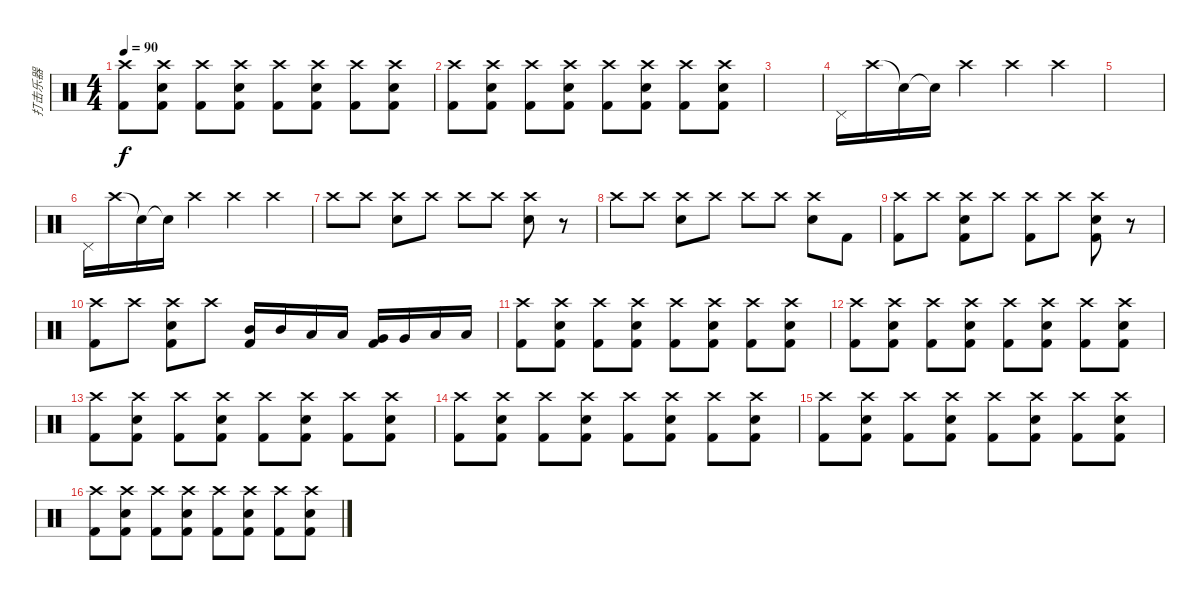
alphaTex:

\track ("打击乐器" "打击乐器") {instrument percussion}
\staff {score}
\articulation defaults
\ts (4 4)
\tempo 90
\clef neutral
\ks c
("Crash high (hit)" "Kick (hit) 2").8{dy f} ("Crash high (hit)" "Electric Snare (hit)" "Kick (hit) 2").8 ("Crash high (hit)" "Kick (hit) 2").8 ("Crash high (hit)" "Electric Snare (hit)" "Kick (hit) 2").8 ("Crash high (hit)" "Kick (hit) 2").8 ("Crash high (hit)" "Electric Snare (hit)" "Kick (hit) 2").8 ("Crash high (hit)" "Kick (hit) 2").8 ("Crash high (hit)" "Electric Snare (hit)" "Kick (hit) 2").8 |
("Crash high (hit)" "Kick (hit) 2").8 ("Crash high (hit)" "Electric Snare (hit)" "Kick (hit) 2").8 ("Crash high (hit)" "Kick (hit) 2").8 ("Crash high (hit)" "Electric Snare (hit)" "Kick (hit) 2").8 ("Crash high (hit)" "Kick (hit) 2").8 ("Crash high (hit)" "Electric Snare (hit)" "Kick (hit) 2").8 ("Crash high (hit)" "Kick (hit) 2").8 ("Crash high (hit)" "Electric Snare (hit)" "Kick (hit) 2").8 |
|
"Pedal Hi-Hat (hit)".16 "Crash high (hit)".16 "Snare (hit)"{t}.16 "Snare (hit)"{t}.16 "Crash high (hit)".4 "Crash high (hit)".4 "Crash high (hit)".4 |
|
"Pedal Hi-Hat (hit)".16 "Crash high (hit)".16 "Snare (hit)"{t}.16 "Snare (hit)"{t}.16 "Crash high (hit)".4 "Crash high (hit)".4 "Crash high (hit)".4 |
"Crash high (hit)".8 "Crash high (hit)".8 ("Crash high (hit)" "Electric Snare (hit)").8 "Crash high (hit)".8 "Crash high (hit)".8 "Crash high (hit)".8 ("Crash high (hit)" "Electric Snare (hit)").8 r.8 |
"Crash high (hit)".8 "Crash high (hit)".8 ("Crash high (hit)" "Electric Snare (hit)").8 "Crash high (hit)".8 "Crash high (hit)".8 "Crash high (hit)".8 ("Crash high (hit)" "Electric Snare (hit)").8 "Kick (hit) 2".8 |
("Crash high (hit)" "Kick (hit) 2").8 "Crash high (hit)".8 ("Crash high (hit)" "Electric Snare (hit)" "Kick (hit) 2").8 "Crash high (hit)".8 ("Crash high (hit)" "Kick (hit) 2").8 "Crash high (hit)".8 ("Crash high (hit)" "Electric Snare (hit)" "Kick (hit) 2").8 r.8 |
("Crash high (hit)" "Kick (hit) 2").8 "Crash high (hit)".8 ("Crash high (hit)" "Electric Snare (hit)" "Kick (hit) 2").8 "Crash high (hit)".8 ("Mid Tom (hit)" "Kick (hit) 2").16 "Mid Tom (hit)".16 "Low Tom (hit)".16 "Low Tom (hit)".16 ("Very Low Tom (hit)" "Kick (hit) 2").16 "Very Low Tom (hit)".16 "Low Floor Tom (hit)".16 "Low Floor Tom (hit)".16 |
("Crash high (hit)" "Kick (hit) 2").8 ("Crash high (hit)" "Electric Snare (hit)" "Kick (hit) 2").8 ("Crash high (hit)" "Kick (hit) 2").8 ("Crash high (hit)" "Electric Snare (hit)" "Kick (hit) 2").8 ("Crash high (hit)" "Kick (hit) 2").8 ("Crash high (hit)" "Electric Snare (hit)" "Kick (hit) 2").8 ("Crash high (hit)" "Kick (hit) 2").8 ("Crash high (hit)" "Electric Snare (hit)" "Kick (hit) 2").8 |
("Crash high (hit)" "Kick (hit) 2").8 ("Crash high (hit)" "Electric Snare (hit)" "Kick (hit) 2").8 ("Crash high (hit)" "Kick (hit) 2").8 ("Crash high (hit)" "Electric Snare (hit)" "Kick (hit) 2").8 ("Crash high (hit)" "Kick (hit) 2").8 ("Crash high (hit)" "Electric Snare (hit)" "Kick (hit) 2").8 ("Crash high (hit)" "Kick (hit) 2").8 ("Crash high (hit)" "Electric Snare (hit)" "Kick (hit) 2").8 |
("Crash high (hit)" "Kick (hit) 2").8 ("Crash high (hit)" "Electric Snare (hit)" "Kick (hit) 2").8 ("Crash high (hit)" "Kick (hit) 2").8 ("Crash high (hit)" "Electric Snare (hit)" "Kick (hit) 2").8 ("Crash high (hit)" "Kick (hit) 2").8 ("Crash high (hit)" "Electric Snare (hit)" "Kick (hit) 2").8 ("Crash high (hit)" "Kick (hit) 2").8 ("Crash high (hit)" "Electric Snare (hit)" "Kick (hit) 2").8 |
("Crash high (hit)" "Kick (hit) 2").8 ("Crash high (hit)" "Electric Snare (hit)" "Kick (hit) 2").8 ("Crash high (hit)" "Kick (hit) 2").8 ("Crash high (hit)" "Electric Snare (hit)" "Kick (hit) 2").8 ("Crash high (hit)" "Kick (hit) 2").8 ("Crash high (hit)" "Electric Snare (hit)" "Kick (hit) 2").8 ("Crash high (hit)" "Kick (hit) 2").8 ("Crash high (hit)" "Electric Snare (hit)" "Kick (hit) 2").8 |
("Crash high (hit)" "Kick (hit) 2").8 ("Crash high (hit)" "Electric Snare (hit)" "Kick (hit) 2").8 ("Crash high (hit)" "Kick (hit) 2").8 ("Crash high (hit)" "Electric Snare (hit)" "Kick (hit) 2").8 ("Crash high (hit)" "Kick (hit) 2").8 ("Crash high (hit)" "Electric Snare (hit)" "Kick (hit) 2").8 ("Crash high (hit)" "Kick (hit) 2").8 ("Crash high (hit)" "Electric Snare (hit)" "Kick (hit) 2").8 |
("Crash high (hit)" "Kick (hit) 2").8 ("Crash high (hit)" "Electric Snare (hit)" "Kick (hit) 2").8 ("Crash high (hit)" "Kick (hit) 2").8 ("Crash high (hit)" "Electric Snare (hit)" "Kick (hit) 2").8 ("Crash high (hit)" "Kick (hit) 2").8 ("Crash high (hit)" "Electric Snare (hit)" "Kick (hit) 2").8 ("Crash high (hit)" "Kick (hit) 2").8 ("Crash high (hit)" "Electric Snare (hit)" "Kick (hit) 2").8
